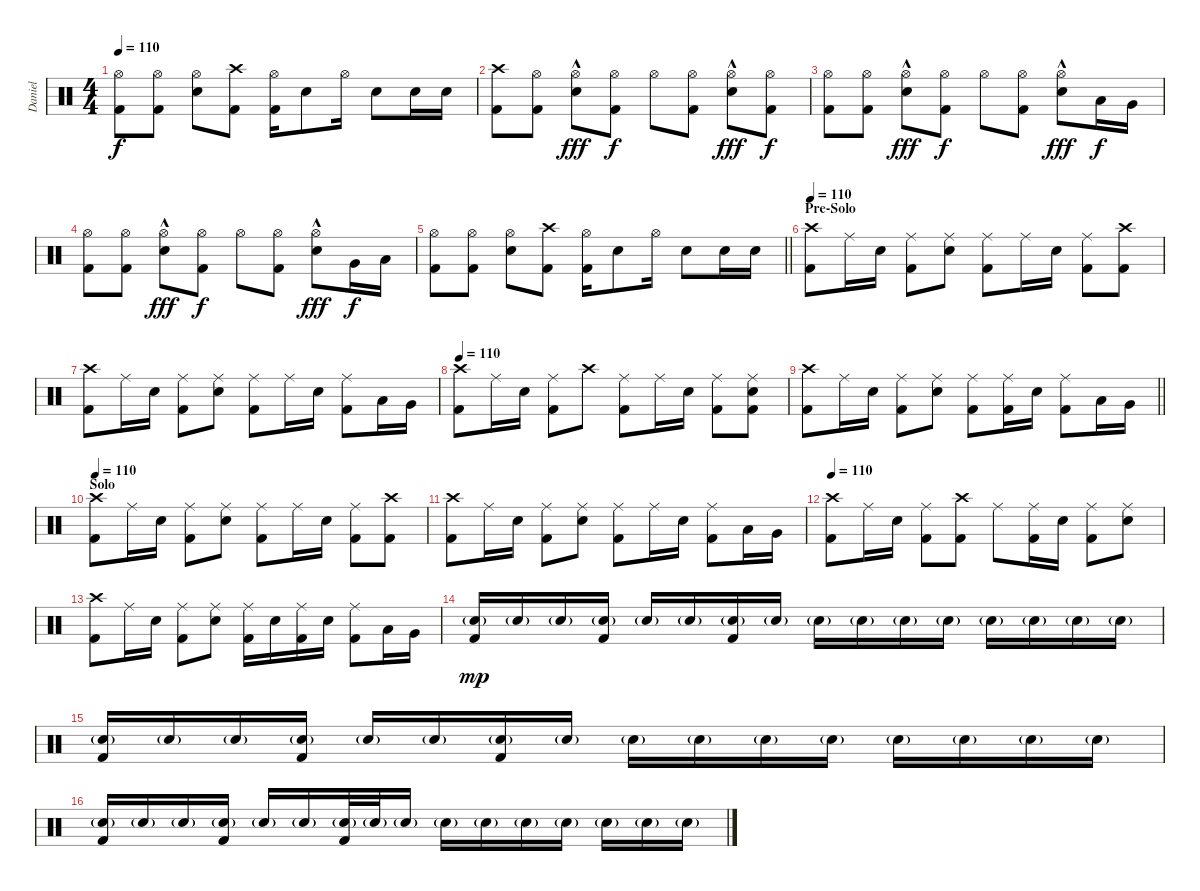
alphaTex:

\track ("Daniel" "Daniel") {instrument percussion}
\staff {score}
\articulation defaults
\ts (4 4)
\tempo 110
\clef neutral
\ks c
("Hi-Hat (open)" "Kick (hit) 2").8{dy f} ("Hi-Hat (open)" "Kick (hit) 2").8 ("Hi-Hat (open)" "Snare (hit) 2").8 ("Crash high (hit)" "Kick (hit) 2").8 ("Hi-Hat (open)" "Kick (hit) 2").16 "Snare (hit) 2".8 "Hi-Hat (open)".16 "Snare (hit) 2".8 "Snare (hit) 2".16 "Snare (hit) 2".16 |
("Crash high (hit)" "Kick (hit) 2").8 ("Hi-Hat (open)" "Kick (hit) 2").8 ("Hi-Hat (open)"{hac} "Snare (hit) 2"{hac}).8{dy fff} ("Hi-Hat (open)" "Kick (hit) 2").8{dy f} "Hi-Hat (open)".8 ("Hi-Hat (open)" "Kick (hit) 2").8 ("Hi-Hat (open)"{hac} "Snare (hit) 2"{hac}).8{dy fff} ("Hi-Hat (open)" "Kick (hit) 2").8{dy f} |
("Hi-Hat (open)" "Kick (hit) 2").8 ("Hi-Hat (open)" "Kick (hit) 2").8 ("Hi-Hat (open)"{hac} "Snare (hit) 2"{hac}).8{dy fff} ("Hi-Hat (open)" "Kick (hit) 2").8{dy f} "Hi-Hat (open)".8 ("Hi-Hat (open)" "Kick (hit) 2").8 ("Hi-Hat (open)"{hac} "Snare (hit) 2"{hac}).8{dy fff} "Low Tom (hit)".16{dy f} "Very Low Tom (hit)".16 |
("Hi-Hat (open)" "Kick (hit) 2").8 ("Hi-Hat (open)" "Kick (hit) 2").8 ("Hi-Hat (open)"{hac} "Snare (hit) 2"{hac}).8{dy fff} ("Hi-Hat (open)" "Kick (hit) 2").8{dy f} "Hi-Hat (open)".8 ("Hi-Hat (open)" "Kick (hit) 2").8 ("Hi-Hat (open)"{hac} "Snare (hit) 2"{hac}).8{dy fff} "Very Low Tom (hit)".16{dy f} "Low Floor Tom (hit)".16 |
\barLineRight lightlight
("Hi-Hat (open)" "Kick (hit) 2").8 ("Hi-Hat (open)" "Kick (hit) 2").8 ("Hi-Hat (open)" "Snare (hit) 2").8 ("Crash high (hit)" "Kick (hit) 2").8 ("Hi-Hat (open)" "Kick (hit) 2").16 "Snare (hit) 2".8 "Hi-Hat (open)".16 "Snare (hit) 2".8 "Snare (hit) 2".16 "Snare (hit) 2".16 |
\section ("" "Pre-Solo")
\tempo 110
("Crash high (hit)" "Kick (hit) 2").8{volume 16} "Ride (middle)".16 "Snare (hit) 2".16 ("Ride (middle)" "Kick (hit) 2").8 ("Ride (middle)" "Snare (hit) 2").8 ("Ride (middle)" "Kick (hit) 2").8 "Ride (middle)".16 "Snare (hit) 2".16 ("Ride (middle)" "Kick (hit) 2").8 ("Crash high (hit)" "Kick (hit) 2").8 |
("Crash high (hit)" "Kick (hit) 2").8 "Ride (middle)".16 "Snare (hit) 2".16 ("Ride (middle)" "Kick (hit) 2").8 ("Ride (middle)" "Snare (hit) 2").8 ("Ride (middle)" "Kick (hit) 2").8 "Ride (middle)".16 "Snare (hit) 2".16 ("Ride (middle)" "Kick (hit) 2").8 "Low Tom (hit)".16 "Very Low Tom (hit)".16 |
\tempo 110
("Crash high (hit)" "Kick (hit) 2").8{volume 16} "Ride (middle)".16 "Snare (hit) 2".16 ("Ride (middle)" "Kick (hit) 2").8 "Crash high (hit)".8 ("Ride (middle)" "Kick (hit) 2").8 "Ride (middle)".16 "Snare (hit) 2".16 ("Ride (middle)" "Kick (hit) 2").8 ("Ride (middle)" "Snare (hit) 2" "Kick (hit) 2").8 |
\barLineRight lightlight
("Crash high (hit)" "Kick (hit) 2").8 "Ride (middle)".16 "Snare (hit) 2".16 ("Ride (middle)" "Kick (hit) 2").8 ("Ride (middle)" "Snare (hit) 2").8 ("Ride (middle)" "Kick (hit) 2").8 ("Ride (middle)" "Kick (hit) 2").16 "Snare (hit) 2".16 ("Ride (middle)" "Kick (hit) 2").8 "Low Tom (hit)".16 "Very Low Tom (hit)".16 |
\section ("" "Solo")
\tempo 110
("Crash high (hit)" "Kick (hit) 2").8{volume 16} "Ride (middle)".16 "Snare (hit) 2".16 ("Ride (middle)" "Kick (hit) 2").8 ("Ride (middle)" "Snare (hit) 2").8 ("Ride (middle)" "Kick (hit) 2").8 "Ride (middle)".16 "Snare (hit) 2".16 ("Ride (middle)" "Kick (hit) 2").8 ("Crash high (hit)" "Kick (hit) 2").8 |
("Crash high (hit)" "Kick (hit) 2").8 "Ride (middle)".16 "Snare (hit) 2".16 ("Ride (middle)" "Kick (hit) 2").8 ("Ride (middle)" "Snare (hit) 2").8 ("Ride (middle)" "Kick (hit) 2").8 "Ride (middle)".16 "Snare (hit) 2".16 ("Ride (middle)" "Kick (hit) 2").8 "Low Tom (hit)".16 "Very Low Tom (hit)".16 |
\tempo 110
("Crash high (hit)" "Kick (hit) 2").8{volume 16} "Ride (middle)".16 "Snare (hit) 2".16 ("Ride (middle)" "Kick (hit) 2").8 ("Crash high (hit)" "Kick (hit) 2").8 "Ride (middle)".8 ("Ride (middle)" "Kick (hit) 2").16 "Snare (hit) 2".16 ("Ride (middle)" "Kick (hit) 2").8 ("Ride (middle)" "Snare (hit) 2").8 |
("Crash high (hit)" "Kick (hit) 2").8 "Ride (middle)".16 "Snare (hit) 2".16 ("Ride (middle)" "Kick (hit) 2").8 ("Ride (middle)" "Snare (hit) 2").8 ("Ride (middle)" "Kick (hit) 2").16 "Snare (hit) 2".16 ("Ride (middle)" "Kick (hit) 2").16 "Snare (hit) 2".16 ("Ride (middle)" "Kick (hit) 2").8 "Low Tom (hit)".16 "Very Low Tom (hit)".16 |
("Snare (hit) 2"{g} "Kick (hit) 2").16{dy mp} "Snare (hit) 2"{g}.16 "Snare (hit) 2"{g}.16 ("Snare (hit) 2"{g} "Kick (hit) 2").16 "Snare (hit) 2"{g}.16 "Snare (hit) 2"{g}.16 ("Snare (hit) 2"{g} "Kick (hit) 2").16 "Snare (hit) 2"{g}.16 "Snare (hit) 2"{g}.16 "Snare (hit) 2"{g}.16 "Snare (hit) 2"{g}.16 "Snare (hit) 2"{g}.16 "Snare (hit) 2"{g}.16 "Snare (hit) 2"{g}.16 "Snare (hit) 2"{g}.16 "Snare (hit) 2"{g}.16 |
("Snare (hit) 2"{g} "Kick (hit) 2").16 "Snare (hit) 2"{g}.16 "Snare (hit) 2"{g}.16 ("Snare (hit) 2"{g} "Kick (hit) 2").16 "Snare (hit) 2"{g}.16 "Snare (hit) 2"{g}.16 ("Snare (hit) 2"{g} "Kick (hit) 2").16 "Snare (hit) 2"{g}.16 "Snare (hit) 2"{g}.16 "Snare (hit) 2"{g}.16 "Snare (hit) 2"{g}.16 "Snare (hit) 2"{g}.16 "Snare (hit) 2"{g}.16 "Snare (hit) 2"{g}.16 "Snare (hit) 2"{g}.16 "Snare (hit) 2"{g}.16 |
("Snare (hit) 2"{g} "Kick (hit) 2").16 "Snare (hit) 2"{g}.16 "Snare (hit) 2"{g}.16 ("Snare (hit) 2"{g} "Kick (hit) 2").16 "Snare (hit) 2"{g}.16 "Snare (hit) 2"{g}.16 ("Snare (hit) 2"{g} "Kick (hit) 2").32 "Snare (hit) 2"{g}.32 "Snare (hit) 2"{g}.16 "Snare (hit) 2"{g}.16 "Snare (hit) 2"{g}.16 "Snare (hit) 2"{g}.16 "Snare (hit) 2"{g}.16 "Snare (hit) 2"{g}.16 "Snare (hit) 2"{g}.16 "Snare (hit) 2"{g}.16
